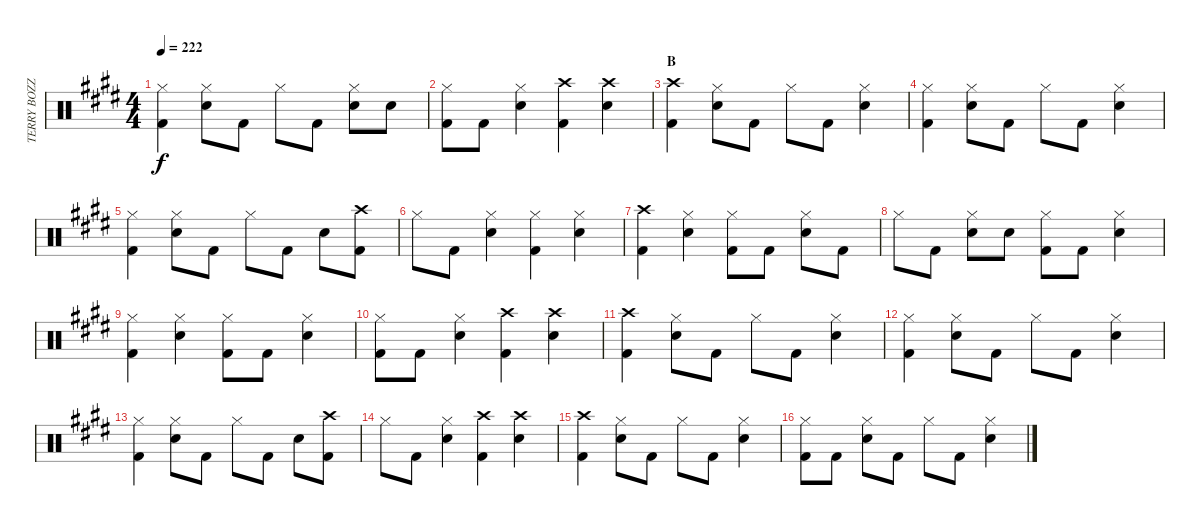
\track ("TERRY BOZZIO" "TERRY BOZZ") {instrument percussion}
\staff {score}
\articulation defaults
\ts (4 4)
\tempo 222
\clef neutral
\ks c#minor
("Hi-Hat (closed)" "Kick (hit) 2").4{dy f} ("Hi-Hat (closed)" "Snare (hit) 2").8 "Kick (hit) 2".8 "Hi-Hat (closed)".8 "Kick (hit) 2".8 ("Hi-Hat (closed)" "Snare (hit) 2").8 "Snare (hit) 2".8 |
("Hi-Hat (closed)" "Kick (hit) 2").8 "Kick (hit) 2".8 ("Hi-Hat (closed)" "Snare (hit) 2").4 ("Crash high (hit)" "Kick (hit) 2").4 ("Crash high (hit)" "Snare (hit) 2").4 |
\section ("" "B")
("Crash high (hit)" "Kick (hit) 2").4 ("Hi-Hat (closed)" "Snare (hit) 2").8 "Kick (hit) 2".8 "Hi-Hat (closed)".8 "Kick (hit) 2".8 ("Hi-Hat (closed)" "Snare (hit) 2").4 |
("Hi-Hat (closed)" "Kick (hit) 2").4 ("Hi-Hat (closed)" "Snare (hit) 2").8 "Kick (hit) 2".8 "Hi-Hat (closed)".8 "Kick (hit) 2".8 ("Hi-Hat (closed)" "Snare (hit) 2").4 |
("Hi-Hat (closed)" "Kick (hit) 2").4 ("Hi-Hat (closed)" "Snare (hit) 2").8 "Kick (hit) 2".8 "Hi-Hat (closed)".8 "Kick (hit) 2".8 "Snare (hit) 2".8 ("Crash high (hit)" "Kick (hit) 2").8 |
"Hi-Hat (closed)".8 "Kick (hit) 2".8 ("Hi-Hat (closed)" "Snare (hit) 2").4 ("Hi-Hat (closed)" "Kick (hit) 2").4 ("Hi-Hat (closed)" "Snare (hit) 2").4 |
("Crash high (hit)" "Kick (hit) 2").4 ("Hi-Hat (closed)" "Snare (hit) 2").4 ("Hi-Hat (closed)" "Kick (hit) 2").8 "Kick (hit) 2".8 ("Hi-Hat (closed)" "Snare (hit) 2").8 "Kick (hit) 2".8 |
"Hi-Hat (closed)".8 "Kick (hit) 2".8 ("Hi-Hat (closed)" "Snare (hit) 2").8 "Snare (hit) 2".8 ("Hi-Hat (closed)" "Kick (hit) 2").8 "Kick (hit) 2".8 ("Hi-Hat (closed)" "Snare (hit) 2").4 |
("Hi-Hat (closed)" "Kick (hit) 2").4 ("Hi-Hat (closed)" "Snare (hit) 2").4 ("Hi-Hat (closed)" "Kick (hit) 2").8 "Kick (hit) 2".8 ("Hi-Hat (closed)" "Snare (hit) 2").4 |
("Hi-Hat (closed)" "Kick (hit) 2").8 "Kick (hit) 2".8 ("Hi-Hat (closed)" "Snare (hit) 2").4 ("Crash high (hit)" "Kick (hit) 2").4 ("Crash high (hit)" "Snare (hit) 2").4 |
("Crash high (hit)" "Kick (hit) 2").4 ("Hi-Hat (closed)" "Snare (hit) 2").8 "Kick (hit) 2".8 "Hi-Hat (closed)".8 "Kick (hit) 2".8 ("Hi-Hat (closed)" "Snare (hit) 2").4 |
("Hi-Hat (closed)" "Kick (hit) 2").4 ("Hi-Hat (closed)" "Snare (hit) 2").8 "Kick (hit) 2".8 "Hi-Hat (closed)".8 "Kick (hit) 2".8 ("Hi-Hat (closed)" "Snare (hit) 2").4 |
("Hi-Hat (closed)" "Kick (hit) 2").4 ("Hi-Hat (closed)" "Snare (hit) 2").8 "Kick (hit) 2".8 "Hi-Hat (closed)".8 "Kick (hit) 2".8 "Snare (hit) 2".8 ("Crash high (hit)" "Kick (hit) 2").8 |
"Hi-Hat (closed)".8 "Kick (hit) 2".8 ("Hi-Hat (closed)" "Snare (hit) 2").4 ("Crash high (hit)" "Kick (hit) 2").4 ("Crash high (hit)" "Snare (hit) 2").4 |
("Crash high (hit)" "Kick (hit) 2").4 ("Hi-Hat (closed)" "Snare (hit) 2").8 "Kick (hit) 2".8 "Hi-Hat (closed)".8 "Kick (hit) 2".8 ("Hi-Hat (closed)" "Snare (hit) 2").4 |
("Hi-Hat (closed)" "Kick (hit) 2").8 "Kick (hit) 2".8 ("Hi-Hat (closed)" "Snare (hit) 2").8 "Kick (hit) 2".8 "Hi-Hat (closed)".8 "Kick (hit) 2".8 ("Hi-Hat (closed)" "Snare (hit) 2").4
